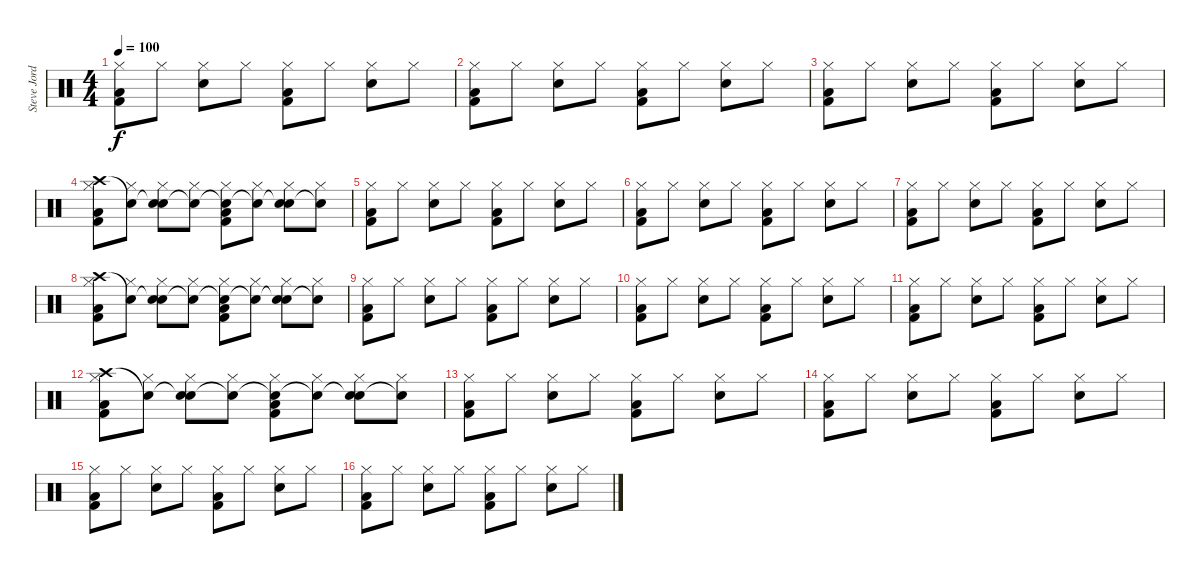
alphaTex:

\track ("Steve Jordan" "Steve Jord") {instrument percussion}
\staff {score}
\articulation defaults
\ts (4 4)
\tempo 100
\clef neutral
\ks c
("Hi-Hat (closed)" "Low Floor Tom (hit)" "Kick (hit) 2").8{dy f} "Hi-Hat (closed)".8 ("Hi-Hat (closed)" "Snare (hit) 2").8 "Hi-Hat (closed)".8 ("Hi-Hat (closed)" "Low Floor Tom (hit)" "Kick (hit) 2").8 "Hi-Hat (closed)".8 ("Hi-Hat (closed)" "Snare (hit) 2").8 "Hi-Hat (closed)".8 |
("Hi-Hat (closed)" "Low Floor Tom (hit)" "Kick (hit) 2").8 "Hi-Hat (closed)".8 ("Hi-Hat (closed)" "Snare (hit) 2").8 "Hi-Hat (closed)".8 ("Hi-Hat (closed)" "Low Floor Tom (hit)" "Kick (hit) 2").8 "Hi-Hat (closed)".8 ("Hi-Hat (closed)" "Snare (hit) 2").8 "Hi-Hat (closed)".8 |
("Hi-Hat (closed)" "Low Floor Tom (hit)" "Kick (hit) 2").8 "Hi-Hat (closed)".8 ("Hi-Hat (closed)" "Snare (hit) 2").8 "Hi-Hat (closed)".8 ("Hi-Hat (closed)" "Low Floor Tom (hit)" "Kick (hit) 2").8 "Hi-Hat (closed)".8 ("Hi-Hat (closed)" "Snare (hit) 2").8 "Hi-Hat (closed)".8 |
("Crash high (hit)" "Hi-Hat (closed)" "Low Floor Tom (hit)" "Kick (hit) 2").8 ("Snare (hit)"{t} "Hi-Hat (closed)").8 ("Snare (hit)"{t} "Hi-Hat (closed)" "Snare (hit) 2").8 ("Snare (hit)"{t} "Hi-Hat (closed)").8 ("Snare (hit)"{t} "Hi-Hat (closed)" "Low Floor Tom (hit)" "Kick (hit) 2").8 ("Snare (hit)"{t} "Hi-Hat (closed)").8 ("Snare (hit)"{t} "Hi-Hat (closed)" "Snare (hit) 2").8 ("Snare (hit)"{t} "Hi-Hat (closed)").8 |
("Hi-Hat (closed)" "Low Floor Tom (hit)" "Kick (hit) 2").8 "Hi-Hat (closed)".8 ("Hi-Hat (closed)" "Snare (hit) 2").8 "Hi-Hat (closed)".8 ("Hi-Hat (closed)" "Low Floor Tom (hit)" "Kick (hit) 2").8 "Hi-Hat (closed)".8 ("Hi-Hat (closed)" "Snare (hit) 2").8 "Hi-Hat (closed)".8 |
("Hi-Hat (closed)" "Low Floor Tom (hit)" "Kick (hit) 2").8 "Hi-Hat (closed)".8 ("Hi-Hat (closed)" "Snare (hit) 2").8 "Hi-Hat (closed)".8 ("Hi-Hat (closed)" "Low Floor Tom (hit)" "Kick (hit) 2").8 "Hi-Hat (closed)".8 ("Hi-Hat (closed)" "Snare (hit) 2").8 "Hi-Hat (closed)".8 |
("Hi-Hat (closed)" "Low Floor Tom (hit)" "Kick (hit) 2").8 "Hi-Hat (closed)".8 ("Hi-Hat (closed)" "Snare (hit) 2").8 "Hi-Hat (closed)".8 ("Hi-Hat (closed)" "Low Floor Tom (hit)" "Kick (hit) 2").8 "Hi-Hat (closed)".8 ("Hi-Hat (closed)" "Snare (hit) 2").8 "Hi-Hat (closed)".8 |
("Crash high (hit)" "Hi-Hat (closed)" "Low Floor Tom (hit)" "Kick (hit) 2").8 ("Snare (hit)"{t} "Hi-Hat (closed)").8 ("Snare (hit)"{t} "Hi-Hat (closed)" "Snare (hit) 2").8 ("Snare (hit)"{t} "Hi-Hat (closed)").8 ("Snare (hit)"{t} "Hi-Hat (closed)" "Low Floor Tom (hit)" "Kick (hit) 2").8 ("Snare (hit)"{t} "Hi-Hat (closed)").8 ("Snare (hit)"{t} "Hi-Hat (closed)" "Snare (hit) 2").8 ("Snare (hit)"{t} "Hi-Hat (closed)").8 |
("Hi-Hat (closed)" "Low Floor Tom (hit)" "Kick (hit) 2").8 "Hi-Hat (closed)".8 ("Hi-Hat (closed)" "Snare (hit) 2").8 "Hi-Hat (closed)".8 ("Hi-Hat (closed)" "Low Floor Tom (hit)" "Kick (hit) 2").8 "Hi-Hat (closed)".8 ("Hi-Hat (closed)" "Snare (hit) 2").8 "Hi-Hat (closed)".8 |
("Hi-Hat (closed)" "Low Floor Tom (hit)" "Kick (hit) 2").8 "Hi-Hat (closed)".8 ("Hi-Hat (closed)" "Snare (hit) 2").8 "Hi-Hat (closed)".8 ("Hi-Hat (closed)" "Low Floor Tom (hit)" "Kick (hit) 2").8 "Hi-Hat (closed)".8 ("Hi-Hat (closed)" "Snare (hit) 2").8 "Hi-Hat (closed)".8 |
("Hi-Hat (closed)" "Low Floor Tom (hit)" "Kick (hit) 2").8 "Hi-Hat (closed)".8 ("Hi-Hat (closed)" "Snare (hit) 2").8 "Hi-Hat (closed)".8 ("Hi-Hat (closed)" "Low Floor Tom (hit)" "Kick (hit) 2").8 "Hi-Hat (closed)".8 ("Hi-Hat (closed)" "Snare (hit) 2").8 "Hi-Hat (closed)".8 |
("Crash high (hit)" "Hi-Hat (closed)" "Low Floor Tom (hit)" "Kick (hit) 2").8 ("Snare (hit)"{t} "Hi-Hat (closed)").8 ("Snare (hit)"{t} "Hi-Hat (closed)" "Snare (hit) 2").8 ("Snare (hit)"{t} "Hi-Hat (closed)").8 ("Snare (hit)"{t} "Hi-Hat (closed)" "Low Floor Tom (hit)" "Kick (hit) 2").8 ("Snare (hit)"{t} "Hi-Hat (closed)").8 ("Snare (hit)"{t} "Hi-Hat (closed)" "Snare (hit) 2").8 ("Snare (hit)"{t} "Hi-Hat (closed)").8 |
("Hi-Hat (closed)" "Low Floor Tom (hit)" "Kick (hit) 2").8 "Hi-Hat (closed)".8 ("Hi-Hat (closed)" "Snare (hit) 2").8 "Hi-Hat (closed)".8 ("Hi-Hat (closed)" "Low Floor Tom (hit)" "Kick (hit) 2").8 "Hi-Hat (closed)".8 ("Hi-Hat (closed)" "Snare (hit) 2").8 "Hi-Hat (closed)".8 |
("Hi-Hat (closed)" "Low Floor Tom (hit)" "Kick (hit) 2").8 "Hi-Hat (closed)".8 ("Hi-Hat (closed)" "Snare (hit) 2").8 "Hi-Hat (closed)".8 ("Hi-Hat (closed)" "Low Floor Tom (hit)" "Kick (hit) 2").8 "Hi-Hat (closed)".8 ("Hi-Hat (closed)" "Snare (hit) 2").8 "Hi-Hat (closed)".8 |
("Hi-Hat (closed)" "Low Floor Tom (hit)" "Kick (hit) 2").8 "Hi-Hat (closed)".8 ("Hi-Hat (closed)" "Snare (hit) 2").8 "Hi-Hat (closed)".8 ("Hi-Hat (closed)" "Low Floor Tom (hit)" "Kick (hit) 2").8 "Hi-Hat (closed)".8 ("Hi-Hat (closed)" "Snare (hit) 2").8 "Hi-Hat (closed)".8 |
("Hi-Hat (closed)" "Low Floor Tom (hit)" "Kick (hit) 2").8 "Hi-Hat (closed)".8 ("Hi-Hat (closed)" "Snare (hit) 2").8 "Hi-Hat (closed)".8 ("Hi-Hat (closed)" "Low Floor Tom (hit)" "Kick (hit) 2").8 "Hi-Hat (closed)".8 ("Hi-Hat (closed)" "Snare (hit) 2").8 "Hi-Hat (closed)".8
